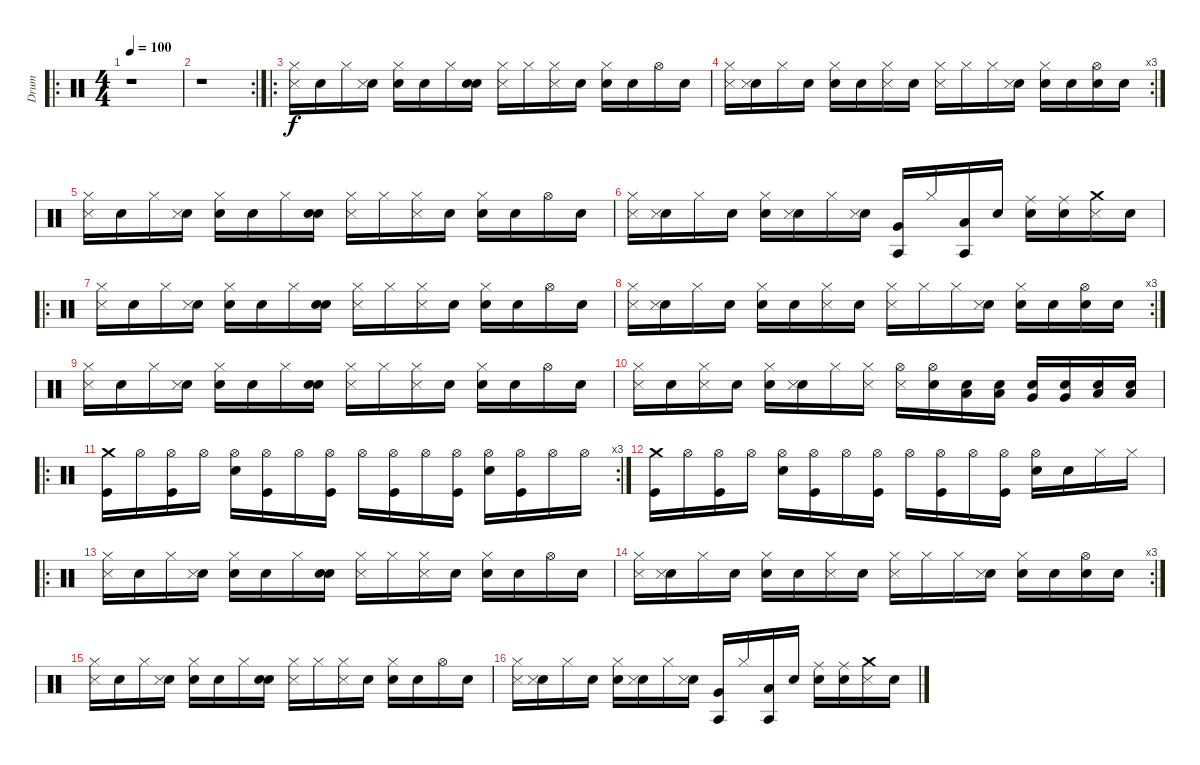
\track ("Drum" "Drum") {instrument percussion}
\staff {score}
\articulation defaults
\ro
\ts (4 4)
\tempo 100
\clef neutral
\ks c
r.1{dy f} |
\rc 2
r.1 |
\ro
("Hi-Hat (closed)" "Metronome (hit)").16 "Snare (hit)".16 "Hi-Hat (closed)".16 ("Snare (hit)" "Metronome (hit)").16 ("Hi-Hat (closed)" "Metronome (bell)").16 "Snare (hit)".16 "Hi-Hat (closed)".16 ("Snare (hit)" "Metronome (bell)").16 ("Hi-Hat (closed)" "Metronome (hit)").16 "Hi-Hat (closed)".16 ("Hi-Hat (closed)" "Metronome (hit)").16 "Snare (hit)".16 ("Hi-Hat (closed)" "Metronome (bell)").16 "Snare (hit)".16 "Hi-Hat (open)".16 "Snare (hit)".16 |
\rc 3
("Hi-Hat (closed)" "Metronome (hit)").16 ("Snare (hit)" "Metronome (hit)").16 "Hi-Hat (closed)".16 "Snare (hit)".16 ("Hi-Hat (closed)" "Metronome (bell)").16 "Snare (hit)".16 ("Hi-Hat (closed)" "Metronome (hit)").16 "Snare (hit)".16 ("Hi-Hat (closed)" "Metronome (hit)").16 "Hi-Hat (closed)".16 "Hi-Hat (closed)".16 ("Snare (hit)" "Metronome (hit)").16 ("Hi-Hat (closed)" "Metronome (bell)").16 "Snare (hit)".16 ("Hi-Hat (open)" "Metronome (bell)").16 "Snare (hit)".16 |
("Hi-Hat (closed)" "Metronome (hit)").16 "Snare (hit)".16 "Hi-Hat (closed)".16 ("Snare (hit)" "Metronome (hit)").16 ("Hi-Hat (closed)" "Metronome (bell)").16 "Snare (hit)".16 "Hi-Hat (closed)".16 ("Snare (hit)" "Metronome (bell)").16 ("Hi-Hat (closed)" "Metronome (hit)").16 "Hi-Hat (closed)".16 ("Hi-Hat (closed)" "Metronome (hit)").16 "Snare (hit)".16 ("Hi-Hat (closed)" "Metronome (bell)").16 "Snare (hit)".16 "Hi-Hat (open)".16 "Snare (hit)".16 |
("Hi-Hat (closed)" "Metronome (hit)").16 ("Snare (hit)" "Metronome (hit)").16 "Hi-Hat (closed)".16 "Snare (hit)".16 ("Hi-Hat (closed)" "Metronome (bell)").16 ("Snare (hit)" "Metronome (hit)").16 "Hi-Hat (closed)".16 ("Snare (hit)" "Metronome (hit)").16 ("Agogo tow (hit)" "Very Low Tom (hit)").16 "Hi-Hat (closed)".16 ("Agogo tow (hit)" "Low Floor Tom (hit)").16 "Snare (hit)".16 ("Ride (middle)" "Metronome (bell)").16 ("Ride (middle)" "Metronome (bell)").16 ("Crash medium (hit)" "Metronome (hit)").16 "Snare (hit)".16 |
\ro
("Hi-Hat (closed)" "Metronome (hit)").16 "Snare (hit)".16 "Hi-Hat (closed)".16 ("Snare (hit)" "Metronome (hit)").16 ("Hi-Hat (closed)" "Metronome (bell)").16 "Snare (hit)".16 "Hi-Hat (closed)".16 ("Snare (hit)" "Metronome (bell)").16 ("Hi-Hat (closed)" "Metronome (hit)").16 "Hi-Hat (closed)".16 ("Hi-Hat (closed)" "Metronome (hit)").16 "Snare (hit)".16 ("Hi-Hat (closed)" "Metronome (bell)").16 "Snare (hit)".16 "Hi-Hat (open)".16 "Snare (hit)".16 |
\rc 3
("Hi-Hat (closed)" "Metronome (hit)").16 ("Snare (hit)" "Metronome (hit)").16 "Hi-Hat (closed)".16 "Snare (hit)".16 ("Hi-Hat (closed)" "Metronome (bell)").16 "Snare (hit)".16 ("Hi-Hat (closed)" "Metronome (hit)").16 "Snare (hit)".16 ("Hi-Hat (closed)" "Metronome (hit)").16 "Hi-Hat (closed)".16 "Hi-Hat (closed)".16 ("Snare (hit)" "Metronome (hit)").16 ("Hi-Hat (closed)" "Metronome (bell)").16 "Snare (hit)".16 ("Hi-Hat (open)" "Metronome (bell)").16 "Snare (hit)".16 |
("Hi-Hat (closed)" "Metronome (hit)").16 "Snare (hit)".16 "Hi-Hat (closed)".16 ("Snare (hit)" "Metronome (hit)").16 ("Hi-Hat (closed)" "Metronome (bell)").16 "Snare (hit)".16 "Hi-Hat (closed)".16 ("Snare (hit)" "Metronome (bell)").16 ("Hi-Hat (closed)" "Metronome (hit)").16 "Hi-Hat (closed)".16 ("Hi-Hat (closed)" "Metronome (hit)").16 "Snare (hit)".16 ("Hi-Hat (closed)" "Metronome (bell)").16 "Snare (hit)".16 "Hi-Hat (open)".16 "Snare (hit)".16 |
("Hi-Hat (closed)" "Metronome (hit)").16 "Snare (hit)".16 ("Hi-Hat (closed)" "Metronome (hit)").16 "Snare (hit)".16 ("Hi-Hat (closed)" "Metronome (bell)").16 ("Snare (hit)" "Metronome (hit)").16 "Hi-Hat (closed)".16 ("Hi-Hat (closed)" "Metronome (hit)").16 ("Hi-Hat (open)" "Metronome (hit)").16 ("Hi-Hat (open)" "Metronome (bell)").16 ("Snare (hit)" "Low Tom (hit)").16 ("Snare (hit)" "Low Tom (hit)").16 ("Snare (hit)" "Very Low Tom (hit)").16 ("Snare (hit)" "Very Low Tom (hit)").16 ("Snare (hit)" "Low Floor Tom (hit)").16 ("Snare (hit)" "Low Floor Tom (hit)").16 |
\ro
\rc 3
("Crash medium (hit)" "Kick (hit)").16 "Hi-Hat (open)".16 ("Hi-Hat (open)" "Kick (hit)").16 "Hi-Hat (open)".16 ("Hi-Hat (open)" "Electric Snare (hit)").16 ("Hi-Hat (open)" "Kick (hit)").16 "Hi-Hat (open)".16 ("Hi-Hat (open)" "Kick (hit)").16 "Hi-Hat (open)".16 ("Hi-Hat (open)" "Kick (hit)").16 "Hi-Hat (open)".16 ("Hi-Hat (open)" "Kick (hit)").16 ("Hi-Hat (open)" "Electric Snare (hit)").16 ("Hi-Hat (open)" "Kick (hit)").16 "Hi-Hat (open)".16 "Hi-Hat (open)".16 |
("Crash medium (hit)" "Kick (hit)").16 "Hi-Hat (open)".16 ("Hi-Hat (open)" "Kick (hit)").16 "Hi-Hat (open)".16 ("Hi-Hat (open)" "Electric Snare (hit)").16 ("Hi-Hat (open)" "Kick (hit)").16 "Hi-Hat (open)".16 ("Hi-Hat (open)" "Kick (hit)").16 "Hi-Hat (open)".16 ("Hi-Hat (open)" "Kick (hit)").16 "Hi-Hat (open)".16 ("Hi-Hat (open)" "Kick (hit)").16 ("Hi-Hat (open)" "Electric Snare (hit)").16 "Snare (hit)".16 "Hi-Hat (closed)".16 "Hi-Hat (closed)".16 |
\ro
("Hi-Hat (closed)" "Metronome (hit)").16 "Snare (hit)".16 "Hi-Hat (closed)".16 ("Snare (hit)" "Metronome (hit)").16 ("Hi-Hat (closed)" "Metronome (bell)").16 "Snare (hit)".16 "Hi-Hat (closed)".16 ("Snare (hit)" "Metronome (bell)").16 ("Hi-Hat (closed)" "Metronome (hit)").16 "Hi-Hat (closed)".16 ("Hi-Hat (closed)" "Metronome (hit)").16 "Snare (hit)".16 ("Hi-Hat (closed)" "Metronome (bell)").16 "Snare (hit)".16 "Hi-Hat (open)".16 "Snare (hit)".16 |
\rc 3
("Hi-Hat (closed)" "Metronome (hit)").16 ("Snare (hit)" "Metronome (hit)").16 "Hi-Hat (closed)".16 "Snare (hit)".16 ("Hi-Hat (closed)" "Metronome (bell)").16 "Snare (hit)".16 ("Hi-Hat (closed)" "Metronome (hit)").16 "Snare (hit)".16 ("Hi-Hat (closed)" "Metronome (hit)").16 "Hi-Hat (closed)".16 "Hi-Hat (closed)".16 ("Snare (hit)" "Metronome (hit)").16 ("Hi-Hat (closed)" "Metronome (bell)").16 "Snare (hit)".16 ("Hi-Hat (open)" "Metronome (bell)").16 "Snare (hit)".16 |
("Hi-Hat (closed)" "Metronome (hit)").16 "Snare (hit)".16 "Hi-Hat (closed)".16 ("Snare (hit)" "Metronome (hit)").16 ("Hi-Hat (closed)" "Metronome (bell)").16 "Snare (hit)".16 "Hi-Hat (closed)".16 ("Snare (hit)" "Metronome (bell)").16 ("Hi-Hat (closed)" "Metronome (hit)").16 "Hi-Hat (closed)".16 ("Hi-Hat (closed)" "Metronome (hit)").16 "Snare (hit)".16 ("Hi-Hat (closed)" "Metronome (bell)").16 "Snare (hit)".16 "Hi-Hat (open)".16 "Snare (hit)".16 |
("Hi-Hat (closed)" "Metronome (hit)").16 ("Snare (hit)" "Metronome (hit)").16 "Hi-Hat (closed)".16 "Snare (hit)".16 ("Hi-Hat (closed)" "Metronome (bell)").16 ("Snare (hit)" "Metronome (hit)").16 "Hi-Hat (closed)".16 ("Snare (hit)" "Metronome (hit)").16 ("Agogo tow (hit)" "Very Low Tom (hit)").16 "Hi-Hat (closed)".16 ("Agogo tow (hit)" "Low Floor Tom (hit)").16 "Snare (hit)".16 ("Ride (middle)" "Metronome (bell)").16 ("Ride (middle)" "Metronome (bell)").16 ("Crash medium (hit)" "Metronome (hit)").16 "Snare (hit)".16
